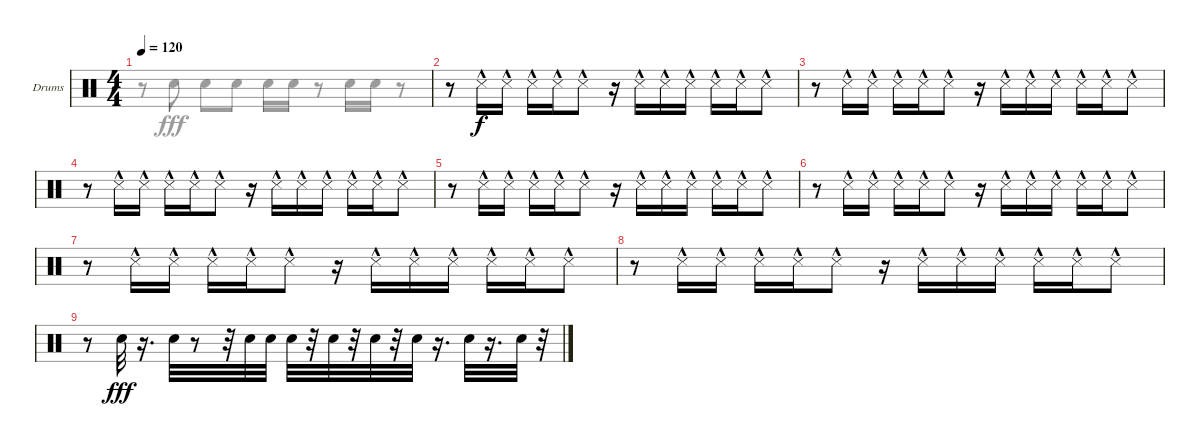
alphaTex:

\defaultSystemsLayout 4
\bracketExtendMode nobrackets
\firstSystemTrackNameOrientation horizontal
\otherSystemsTrackNameOrientation horizontal
\track ("Drumkit" "Drums") {instrument percussion}
\staff {score}
\articulation defaults
\voice
\ts (4 4)
\tempo 120
\clef neutral
\ks c
|
r.8 "Snare (side stick) 3"{hac}.16 "Snare (side stick) 3"{hac}.16 "Snare (side stick) 3"{hac}.16 "Snare (side stick) 3"{hac}.16 "Snare (side stick) 3"{hac}.8 r.16 "Snare (side stick) 3"{hac}.16 "Snare (side stick) 3"{hac}.16 "Snare (side stick) 3"{hac}.16 "Snare (side stick) 3"{hac}.16 "Snare (side stick) 3"{hac}.16 "Snare (side stick) 3"{hac}.8 |
r.8 "Snare (side stick) 3"{hac}.16 "Snare (side stick) 3"{hac}.16 "Snare (side stick) 3"{hac}.16 "Snare (side stick) 3"{hac}.16 "Snare (side stick) 3"{hac}.8 r.16 "Snare (side stick) 3"{hac}.16 "Snare (side stick) 3"{hac}.16 "Snare (side stick) 3"{hac}.16 "Snare (side stick) 3"{hac}.16 "Snare (side stick) 3"{hac}.16 "Snare (side stick) 3"{hac}.8 |
r.8 "Snare (side stick) 3"{hac}.16 "Snare (side stick) 3"{hac}.16 "Snare (side stick) 3"{hac}.16 "Snare (side stick) 3"{hac}.16 "Snare (side stick) 3"{hac}.8 r.16 "Snare (side stick) 3"{hac}.16 "Snare (side stick) 3"{hac}.16 "Snare (side stick) 3"{hac}.16 "Snare (side stick) 3"{hac}.16 "Snare (side stick) 3"{hac}.16 "Snare (side stick) 3"{hac}.8 |
r.8 "Snare (side stick) 3"{hac}.16 "Snare (side stick) 3"{hac}.16 "Snare (side stick) 3"{hac}.16 "Snare (side stick) 3"{hac}.16 "Snare (side stick) 3"{hac}.8 r.16 "Snare (side stick) 3"{hac}.16 "Snare (side stick) 3"{hac}.16 "Snare (side stick) 3"{hac}.16 "Snare (side stick) 3"{hac}.16 "Snare (side stick) 3"{hac}.16 "Snare (side stick) 3"{hac}.8 |
r.8 "Snare (side stick) 3"{hac}.16 "Snare (side stick) 3"{hac}.16 "Snare (side stick) 3"{hac}.16 "Snare (side stick) 3"{hac}.16 "Snare (side stick) 3"{hac}.8 r.16 "Snare (side stick) 3"{hac}.16 "Snare (side stick) 3"{hac}.16 "Snare (side stick) 3"{hac}.16 "Snare (side stick) 3"{hac}.16 "Snare (side stick) 3"{hac}.16 "Snare (side stick) 3"{hac}.8 |
r.8 "Snare (side stick) 3"{hac}.16 "Snare (side stick) 3"{hac}.16 "Snare (side stick) 3"{hac}.16 "Snare (side stick) 3"{hac}.16 "Snare (side stick) 3"{hac}.8 r.16 "Snare (side stick) 3"{hac}.16 "Snare (side stick) 3"{hac}.16 "Snare (side stick) 3"{hac}.16 "Snare (side stick) 3"{hac}.16 "Snare (side stick) 3"{hac}.16 "Snare (side stick) 3"{hac}.8 |
r.8 "Snare (side stick) 3"{hac}.16 "Snare (side stick) 3"{hac}.16 "Snare (side stick) 3"{hac}.16 "Snare (side stick) 3"{hac}.16 "Snare (side stick) 3"{hac}.8 r.16 "Snare (side stick) 3"{hac}.16 "Snare (side stick) 3"{hac}.16 "Snare (side stick) 3"{hac}.16 "Snare (side stick) 3"{hac}.16 "Snare (side stick) 3"{hac}.16 "Snare (side stick) 3"{hac}.8 |
r.8 "Snare (hit) 2".32{dy fff} r.16{d} "Snare (hit) 2".32 r.8 r.32 "Snare (hit) 2".32 "Snare (hit) 2".32 "Snare (hit) 2".32 r.32 "Snare (hit) 2".32 r.32 "Snare (hit) 2".32 r.32 "Snare (hit) 2".32 r.16{d} "Snare (hit) 2".32 r.16{d} "Snare (hit) 2".32 r.32 |
|
|
|
|
|
|
\voice
\clef neutral
\ottava regular
\simile none
\ks c
r.8{dy fff} "Snare (hit) 2".8 "Snare (hit) 2".8 "Snare (hit) 2".8 "Snare (hit) 2".16 "Snare (hit) 2".16 r.8 "Snare (hit) 2".16 "Snare (hit) 2".16 r.8 |
|
|
|
|
|
|
|
|
|
|
|
|
|
|
